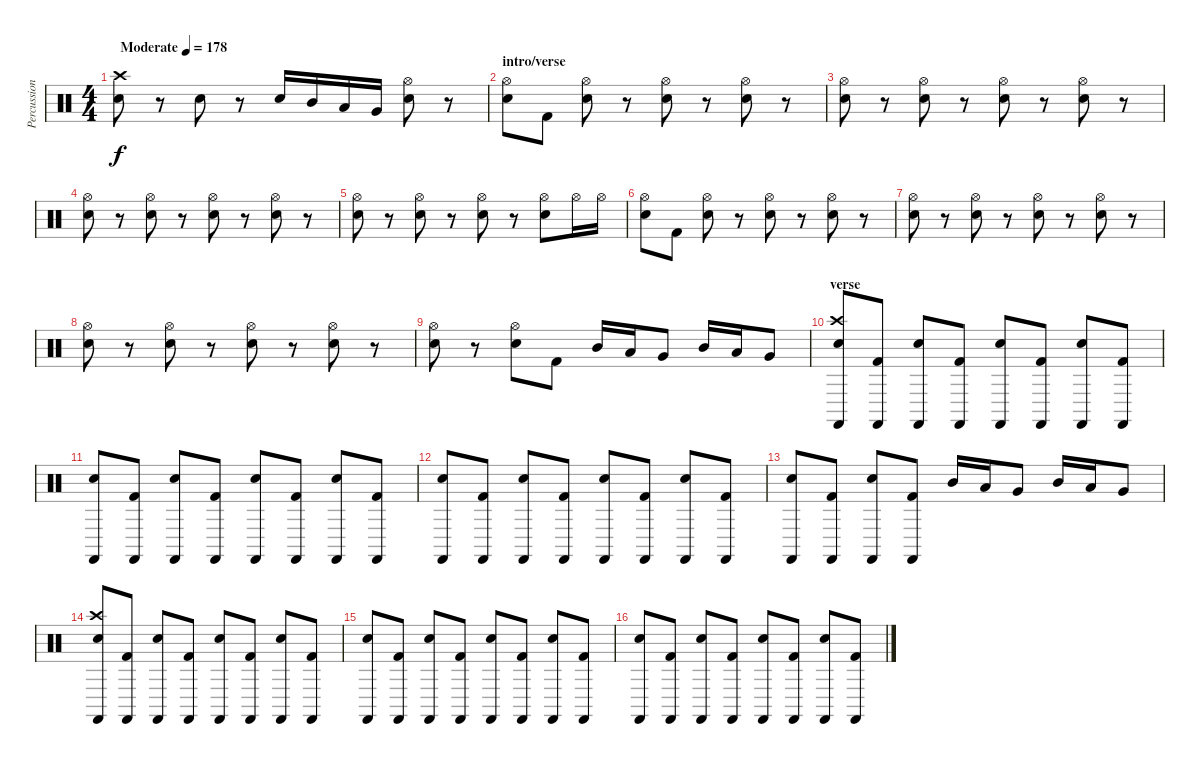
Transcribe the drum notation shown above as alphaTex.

\track ("Percussion" "Percussion") {instrument percussion}
\staff {score}
\articulation defaults
\ts (4 4)
\tempo (178 "Moderate")
\clef neutral
\ks c
("Crash high (hit)" "Electric Snare (hit)").8{dy f} r.8 "Electric Snare (hit)".8 r.8 "Electric Snare (hit)".16 "Mid Tom (hit)".16 "Low Tom (hit)".16 "Very Low Tom (hit)".16 ("Hi-Hat (open)" "Electric Snare (hit)").8 r.8 |
\section ("" "intro/verse")
("Hi-Hat (open)" "Electric Snare (hit)").8 "Kick (hit) 2".8 ("Hi-Hat (open)" "Electric Snare (hit)").8 r.8 ("Hi-Hat (open)" "Electric Snare (hit)").8 r.8 ("Hi-Hat (open)" "Electric Snare (hit)").8 r.8 |
("Hi-Hat (open)" "Electric Snare (hit)").8 r.8 ("Hi-Hat (open)" "Electric Snare (hit)").8 r.8 ("Hi-Hat (open)" "Electric Snare (hit)").8 r.8 ("Hi-Hat (open)" "Electric Snare (hit)").8 r.8 |
("Hi-Hat (open)" "Electric Snare (hit)").8 r.8 ("Hi-Hat (open)" "Electric Snare (hit)").8 r.8 ("Hi-Hat (open)" "Electric Snare (hit)").8 r.8 ("Hi-Hat (open)" "Electric Snare (hit)").8 r.8 |
("Hi-Hat (open)" "Electric Snare (hit)").8 r.8 ("Hi-Hat (open)" "Electric Snare (hit)").8 r.8 ("Hi-Hat (open)" "Electric Snare (hit)").8 r.8 ("Hi-Hat (open)" "Electric Snare (hit)").8 "Hi-Hat (open)".16 "Hi-Hat (open)".16 |
("Hi-Hat (open)" "Electric Snare (hit)").8 "Kick (hit) 2".8 ("Hi-Hat (open)" "Electric Snare (hit)").8 r.8 ("Hi-Hat (open)" "Electric Snare (hit)").8 r.8 ("Hi-Hat (open)" "Electric Snare (hit)").8 r.8 |
("Hi-Hat (open)" "Electric Snare (hit)").8 r.8 ("Hi-Hat (open)" "Electric Snare (hit)").8 r.8 ("Hi-Hat (open)" "Electric Snare (hit)").8 r.8 ("Hi-Hat (open)" "Electric Snare (hit)").8 r.8 |
("Hi-Hat (open)" "Electric Snare (hit)").8 r.8 ("Hi-Hat (open)" "Electric Snare (hit)").8 r.8 ("Hi-Hat (open)" "Electric Snare (hit)").8 r.8 ("Hi-Hat (open)" "Electric Snare (hit)").8 r.8 |
("Hi-Hat (open)" "Electric Snare (hit)").8 r.8 ("Hi-Hat (open)" "Electric Snare (hit)").8 "Kick (hit) 2".8 "Mid Tom (hit)".16 "Low Tom (hit)".16 "Very Low Tom (hit)".8 "Mid Tom (hit)".16 "Low Tom (hit)".16 "Very Low Tom (hit)".8 |
\section ("" "verse")
("Crash high (hit)" "Castanets (hit)" "Electric Snare (hit)").8 ("Castanets (hit)" "Kick (hit) 2").8 ("Castanets (hit)" "Electric Snare (hit)").8 ("Castanets (hit)" "Kick (hit) 2").8 ("Castanets (hit)" "Electric Snare (hit)").8 ("Castanets (hit)" "Kick (hit) 2").8 ("Castanets (hit)" "Electric Snare (hit)").8 ("Castanets (hit)" "Kick (hit) 2").8 |
("Castanets (hit)" "Electric Snare (hit)").8 ("Castanets (hit)" "Kick (hit) 2").8 ("Castanets (hit)" "Electric Snare (hit)").8 ("Castanets (hit)" "Kick (hit) 2").8 ("Castanets (hit)" "Electric Snare (hit)").8 ("Castanets (hit)" "Kick (hit) 2").8 ("Castanets (hit)" "Electric Snare (hit)").8 ("Castanets (hit)" "Kick (hit) 2").8 |
("Castanets (hit)" "Electric Snare (hit)").8 ("Castanets (hit)" "Kick (hit) 2").8 ("Castanets (hit)" "Electric Snare (hit)").8 ("Castanets (hit)" "Kick (hit) 2").8 ("Castanets (hit)" "Electric Snare (hit)").8 ("Castanets (hit)" "Kick (hit) 2").8 ("Castanets (hit)" "Electric Snare (hit)").8 ("Castanets (hit)" "Kick (hit) 2").8 |
("Castanets (hit)" "Electric Snare (hit)").8 ("Castanets (hit)" "Kick (hit) 2").8 ("Castanets (hit)" "Electric Snare (hit)").8 ("Castanets (hit)" "Kick (hit) 2").8 "Mid Tom (hit)".16 "Low Tom (hit)".16 "Very Low Tom (hit)".8 "Mid Tom (hit)".16 "Low Tom (hit)".16 "Very Low Tom (hit)".8 |
("Crash high (hit)" "Castanets (hit)" "Electric Snare (hit)").8 ("Castanets (hit)" "Kick (hit) 2").8 ("Castanets (hit)" "Electric Snare (hit)").8 ("Castanets (hit)" "Kick (hit) 2").8 ("Castanets (hit)" "Electric Snare (hit)").8 ("Castanets (hit)" "Kick (hit) 2").8 ("Castanets (hit)" "Electric Snare (hit)").8 ("Castanets (hit)" "Kick (hit) 2").8 |
("Castanets (hit)" "Electric Snare (hit)").8 ("Castanets (hit)" "Kick (hit) 2").8 ("Castanets (hit)" "Electric Snare (hit)").8 ("Castanets (hit)" "Kick (hit) 2").8 ("Castanets (hit)" "Electric Snare (hit)").8 ("Castanets (hit)" "Kick (hit) 2").8 ("Castanets (hit)" "Electric Snare (hit)").8 ("Castanets (hit)" "Kick (hit) 2").8 |
("Castanets (hit)" "Electric Snare (hit)").8 ("Castanets (hit)" "Kick (hit) 2").8 ("Castanets (hit)" "Electric Snare (hit)").8 ("Castanets (hit)" "Kick (hit) 2").8 ("Castanets (hit)" "Electric Snare (hit)").8 ("Castanets (hit)" "Kick (hit) 2").8 ("Castanets (hit)" "Electric Snare (hit)").8 ("Castanets (hit)" "Kick (hit) 2").8
